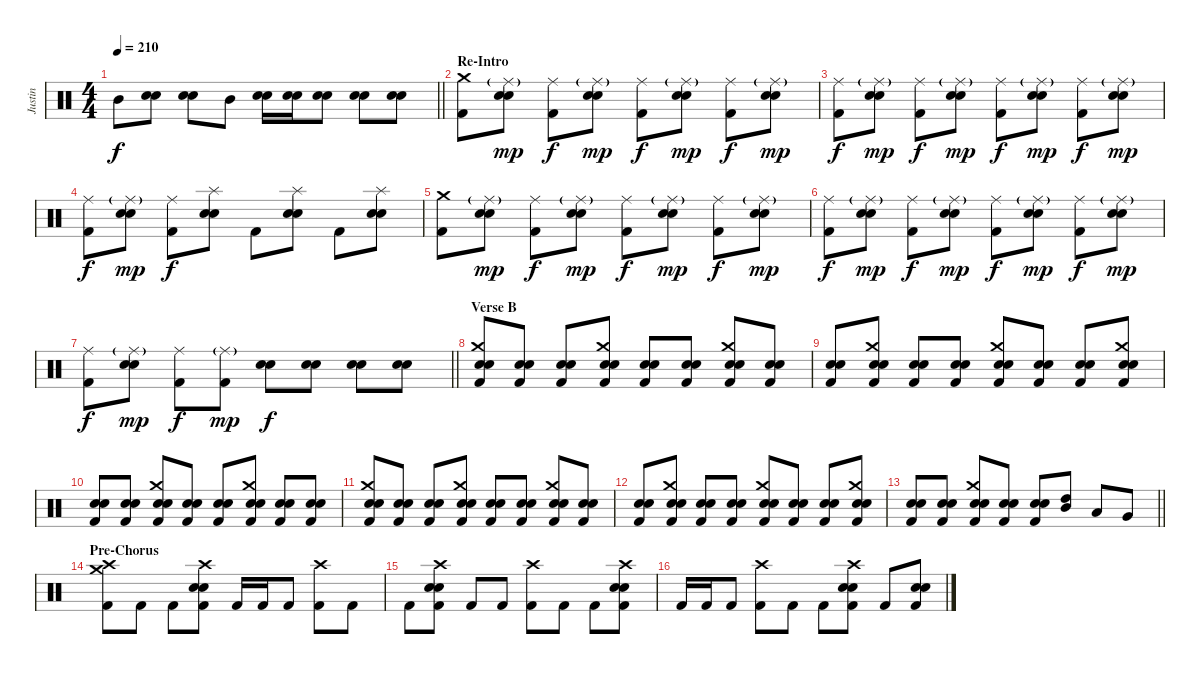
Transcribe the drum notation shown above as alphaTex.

\track ("Justin" "Justin") {instrument percussion}
\staff {score}
\articulation defaults
\ts (4 4)
\tempo 210
\clef neutral
\barLineRight lightlight
\ks c "Mid Tom (hit)".8{dy f}
("Electric Snare (hit)" "Snare (hit) 2").8 ("Electric Snare (hit)" "Snare (hit) 2").8 "Mid Tom (hit)".8 ("Electric Snare (hit)" "Snare (hit) 2").16 ("Electric Snare (hit)" "Snare (hit) 2").16 ("Electric Snare (hit)" "Snare (hit) 2").8 ("Electric Snare (hit)" "Snare (hit) 2").8 ("Electric Snare (hit)" "Snare (hit) 2").8 |
\section ("" "Re-Intro")
("Crash medium (hit)" "Kick (hit) 2").8 ("Ride (middle)"{g} "Electric Snare (hit)" "Snare (hit) 2").8{dy mp} ("Ride (middle)" "Kick (hit) 2").8{dy f} ("Ride (middle)"{g} "Electric Snare (hit)" "Snare (hit) 2").8{dy mp} ("Ride (middle)" "Kick (hit) 2").8{dy f} ("Ride (middle)"{g} "Electric Snare (hit)" "Snare (hit) 2").8{dy mp} ("Ride (middle)" "Kick (hit) 2").8{dy f} ("Ride (middle)"{g} "Electric Snare (hit)" "Snare (hit) 2").8{dy mp} |
("Ride (middle)" "Kick (hit) 2").8{dy f} ("Ride (middle)"{g} "Electric Snare (hit)" "Snare (hit) 2").8{dy mp} ("Ride (middle)" "Kick (hit) 2").8{dy f} ("Ride (middle)"{g} "Electric Snare (hit)" "Snare (hit) 2").8{dy mp} ("Ride (middle)" "Kick (hit) 2").8{dy f} ("Ride (middle)"{g} "Electric Snare (hit)" "Snare (hit) 2").8{dy mp} ("Ride (middle)" "Kick (hit) 2").8{dy f} ("Ride (middle)"{g} "Electric Snare (hit)" "Snare (hit) 2").8{dy mp} |
("Ride (middle)" "Kick (hit) 2").8{dy f} ("Ride (middle)"{g} "Electric Snare (hit)" "Snare (hit) 2").8{dy mp} ("Ride (middle)" "Kick (hit) 2").8{dy f} ("Splash (hit)" "Electric Snare (hit)" "Snare (hit) 2").8 "Kick (hit) 2".8 ("Splash (hit)" "Electric Snare (hit)" "Snare (hit) 2").8 "Kick (hit) 2".8 ("Splash (hit)" "Electric Snare (hit)" "Snare (hit) 2").8 |
("Crash medium (hit)" "Kick (hit) 2").8 ("Ride (middle)"{g} "Electric Snare (hit)" "Snare (hit) 2").8{dy mp} ("Ride (middle)" "Kick (hit) 2").8{dy f} ("Ride (middle)"{g} "Electric Snare (hit)" "Snare (hit) 2").8{dy mp} ("Ride (middle)" "Kick (hit) 2").8{dy f} ("Ride (middle)"{g} "Electric Snare (hit)" "Snare (hit) 2").8{dy mp} ("Ride (middle)" "Kick (hit) 2").8{dy f} ("Ride (middle)"{g} "Electric Snare (hit)" "Snare (hit) 2").8{dy mp} |
("Ride (middle)" "Kick (hit) 2").8{dy f} ("Ride (middle)"{g} "Electric Snare (hit)" "Snare (hit) 2").8{dy mp} ("Ride (middle)" "Kick (hit) 2").8{dy f} ("Ride (middle)"{g} "Electric Snare (hit)" "Snare (hit) 2").8{dy mp} ("Ride (middle)" "Kick (hit) 2").8{dy f} ("Ride (middle)"{g} "Electric Snare (hit)" "Snare (hit) 2").8{dy mp} ("Ride (middle)" "Kick (hit) 2").8{dy f} ("Ride (middle)"{g} "Electric Snare (hit)" "Snare (hit) 2").8{dy mp} |
\barLineRight lightlight
("Ride (middle)" "Kick (hit) 2").8{dy f} ("Ride (middle)"{g} "Electric Snare (hit)" "Snare (hit) 2").8{dy mp} ("Ride (middle)" "Kick (hit) 2").8{dy f} ("Ride (middle)"{g} "Kick (hit) 2").8{dy mp} ("Electric Snare (hit)" "Snare (hit) 2").8{dy f} ("Electric Snare (hit)" "Snare (hit) 2").8 ("Electric Snare (hit)" "Snare (hit) 2").8 ("Electric Snare (hit)" "Snare (hit) 2").8 |
\section ("" "Verse B")
("Crash medium (hit)" "Electric Snare (hit)" "Snare (hit) 2" "Kick (hit) 2").8 ("Electric Snare (hit)" "Snare (hit) 2" "Kick (hit) 2").8 ("Electric Snare (hit)" "Snare (hit) 2" "Kick (hit) 2").8 ("Crash medium (hit)" "Electric Snare (hit)" "Snare (hit) 2" "Kick (hit) 2").8 ("Electric Snare (hit)" "Snare (hit) 2" "Kick (hit) 2").8 ("Electric Snare (hit)" "Snare (hit) 2" "Kick (hit) 2").8 ("Crash medium (hit)" "Electric Snare (hit)" "Snare (hit) 2" "Kick (hit) 2").8 ("Electric Snare (hit)" "Snare (hit) 2" "Kick (hit) 2").8 |
("Electric Snare (hit)" "Snare (hit) 2" "Kick (hit) 2").8 ("Crash medium (hit)" "Electric Snare (hit)" "Snare (hit) 2" "Kick (hit) 2").8 ("Electric Snare (hit)" "Snare (hit) 2" "Kick (hit) 2").8 ("Electric Snare (hit)" "Snare (hit) 2" "Kick (hit) 2").8 ("Crash medium (hit)" "Electric Snare (hit)" "Snare (hit) 2" "Kick (hit) 2").8 ("Electric Snare (hit)" "Snare (hit) 2" "Kick (hit) 2").8 ("Electric Snare (hit)" "Snare (hit) 2" "Kick (hit) 2").8 ("Crash medium (hit)" "Electric Snare (hit)" "Snare (hit) 2" "Kick (hit) 2").8 |
("Electric Snare (hit)" "Snare (hit) 2" "Kick (hit) 2").8 ("Electric Snare (hit)" "Snare (hit) 2" "Kick (hit) 2").8 ("Crash medium (hit)" "Electric Snare (hit)" "Snare (hit) 2" "Kick (hit) 2").8 ("Electric Snare (hit)" "Snare (hit) 2" "Kick (hit) 2").8 ("Electric Snare (hit)" "Snare (hit) 2" "Kick (hit) 2").8 ("Crash medium (hit)" "Electric Snare (hit)" "Snare (hit) 2" "Kick (hit) 2").8 ("Electric Snare (hit)" "Snare (hit) 2" "Kick (hit) 2").8 ("Electric Snare (hit)" "Snare (hit) 2" "Kick (hit) 2").8 |
("Crash medium (hit)" "Electric Snare (hit)" "Snare (hit) 2" "Kick (hit) 2").8 ("Electric Snare (hit)" "Snare (hit) 2" "Kick (hit) 2").8 ("Electric Snare (hit)" "Snare (hit) 2" "Kick (hit) 2").8 ("Crash medium (hit)" "Electric Snare (hit)" "Snare (hit) 2" "Kick (hit) 2").8 ("Electric Snare (hit)" "Snare (hit) 2" "Kick (hit) 2").8 ("Electric Snare (hit)" "Snare (hit) 2" "Kick (hit) 2").8 ("Crash medium (hit)" "Electric Snare (hit)" "Snare (hit) 2" "Kick (hit) 2").8 ("Electric Snare (hit)" "Snare (hit) 2" "Kick (hit) 2").8 |
("Electric Snare (hit)" "Snare (hit) 2" "Kick (hit) 2").8 ("Crash medium (hit)" "Electric Snare (hit)" "Snare (hit) 2" "Kick (hit) 2").8 ("Electric Snare (hit)" "Snare (hit) 2" "Kick (hit) 2").8 ("Electric Snare (hit)" "Snare (hit) 2" "Kick (hit) 2").8 ("Crash medium (hit)" "Electric Snare (hit)" "Snare (hit) 2" "Kick (hit) 2").8 ("Electric Snare (hit)" "Snare (hit) 2" "Kick (hit) 2").8 ("Electric Snare (hit)" "Snare (hit) 2" "Kick (hit) 2").8 ("Crash medium (hit)" "Electric Snare (hit)" "Snare (hit) 2" "Kick (hit) 2").8 |
\barLineRight lightlight
("Electric Snare (hit)" "Snare (hit) 2" "Kick (hit) 2").8 ("Electric Snare (hit)" "Snare (hit) 2" "Kick (hit) 2").8 ("Crash medium (hit)" "Electric Snare (hit)" "Snare (hit) 2" "Kick (hit) 2").8 ("Electric Snare (hit)" "Snare (hit) 2" "Kick (hit) 2").8 ("Electric Snare (hit)" "Snare (hit) 2" "Kick (hit) 2").8 ("High Tom (hit)" "Mid Tom (hit)").8 "Low Tom (hit)".8 "Very Low Tom (hit)".8 |
\section ("" "Pre-Chorus")
("Crash high (hit)" "Crash medium (hit)" "Kick (hit) 2").8 "Kick (hit) 2".8 "Kick (hit) 2".8 ("Crash high (hit)" "Electric Snare (hit)" "Snare (hit) 2" "Kick (hit) 2").8 "Kick (hit) 2".16 "Kick (hit) 2".16 "Kick (hit) 2".8 ("Crash high (hit)" "Kick (hit) 2").8 "Kick (hit) 2".8 |
"Kick (hit) 2".8 ("Crash high (hit)" "Electric Snare (hit)" "Snare (hit) 2" "Kick (hit) 2").8 "Kick (hit) 2".8 "Kick (hit) 2".8 ("Crash high (hit)" "Kick (hit) 2").8 "Kick (hit) 2".8 "Kick (hit) 2".8 ("Crash high (hit)" "Electric Snare (hit)" "Snare (hit) 2" "Kick (hit) 2").8 |
"Kick (hit) 2".16 "Kick (hit) 2".16 "Kick (hit) 2".8 ("Crash high (hit)" "Kick (hit) 2").8 "Kick (hit) 2".8 "Kick (hit) 2".8 ("Crash high (hit)" "Electric Snare (hit)" "Snare (hit) 2" "Kick (hit) 2").8 "Kick (hit) 2".8 ("Electric Snare (hit)" "Snare (hit) 2" "Kick (hit) 2").8
